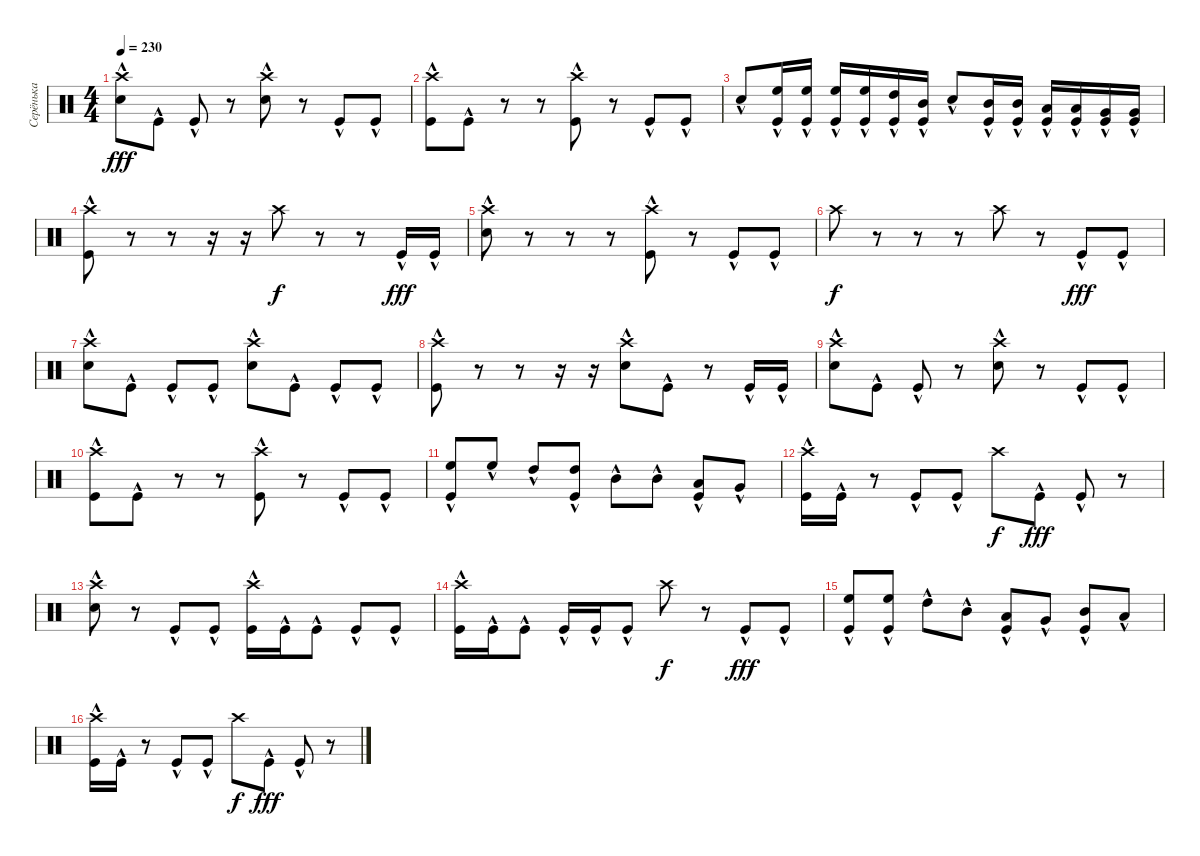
\track ("Серёнька" "Серёнька") {instrument percussion}
\staff {score}
\articulation defaults
\ts (4 4)
\tempo 230
\clef neutral
\ks c
("Crash high (hit)" "Snare (hit) 2"{hac}).8{dy fff} "Kick (hit)"{hac}.8 "Kick (hit)"{hac}.8 r.8 ("Crash high (hit)" "Snare (hit) 2"{hac}).8 r.8 "Kick (hit)"{hac}.8 "Kick (hit)"{hac}.8 |
("Crash high (hit)" "Kick (hit)"{hac}).8 "Kick (hit)"{hac}.8 r.8 r.8 ("Crash high (hit)" "Kick (hit)"{hac}).8 r.8 "Kick (hit)"{hac}.8 "Kick (hit)"{hac}.8 |
"Snare (hit) 2"{hac}.8 ("High Floor Tom (hit)" "Kick (hit)"{hac}).16 ("High Floor Tom (hit)" "Kick (hit)"{hac}).16 ("High Floor Tom (hit)" "Kick (hit)"{hac}).16 ("High Floor Tom (hit)" "Kick (hit)"{hac}).16 ("High Tom (hit)" "Kick (hit)"{hac}).16 ("Mid Tom (hit)" "Kick (hit)"{hac}).16 "Snare (hit) 2"{hac}.8 ("Mid Tom (hit)"{hac} "Kick (hit)"{hac}).16 ("Mid Tom (hit)"{hac} "Kick (hit)"{hac}).16 ("Low Tom (hit)"{hac} "Kick (hit)"{hac}).16 ("Low Tom (hit)"{hac} "Kick (hit)"{hac}).16 ("Very Low Tom (hit)"{hac} "Kick (hit)"{hac}).16 ("Very Low Tom (hit)"{hac} "Kick (hit)"{hac}).16 |
("Crash high (hit)"{hac} "Kick (hit)"{hac}).8 r.8 r.8 r.16 r.16 "Crash high (hit)".8{dy f} r.8 r.8 "Kick (hit)"{hac}.16{dy fff} "Kick (hit)"{hac}.16 |
("Crash high (hit)" "Snare (hit) 2"{hac}).8 r.8 r.8 r.8 ("Crash high (hit)" "Kick (hit)"{hac}).8 r.8 "Kick (hit)"{hac}.8 "Kick (hit)"{hac}.8 |
"Crash high (hit)".8{dy f} r.8 r.8 r.8 "Crash high (hit)".8 r.8 "Kick (hit)"{hac}.8{dy fff} "Kick (hit)"{hac}.8 |
("Crash high (hit)" "Snare (hit) 2"{hac}).8 "Kick (hit)"{hac}.8 "Kick (hit)"{hac}.8 "Kick (hit)"{hac}.8 ("Crash high (hit)" "Snare (hit) 2"{hac}).8 "Kick (hit)"{hac}.8 "Kick (hit)"{hac}.8 "Kick (hit)"{hac}.8 |
("Crash high (hit)"{hac} "Kick (hit)"{hac}).8 r.8 r.8 r.16 r.16 ("Crash high (hit)" "Snare (hit) 2"{hac}).8 "Kick (hit)"{hac}.8 r.8 "Kick (hit)"{hac}.16 "Kick (hit)"{hac}.16 |
("Crash high (hit)" "Snare (hit) 2"{hac}).8 "Kick (hit)"{hac}.8 "Kick (hit)"{hac}.8 r.8 ("Crash high (hit)" "Snare (hit) 2"{hac}).8 r.8 "Kick (hit)"{hac}.8 "Kick (hit)"{hac}.8 |
("Crash high (hit)" "Kick (hit)"{hac}).8 "Kick (hit)"{hac}.8 r.8 r.8 ("Crash high (hit)" "Kick (hit)"{hac}).8 r.8 "Kick (hit)"{hac}.8 "Kick (hit)"{hac}.8 |
("High Floor Tom (hit)"{hac} "Kick (hit)"{hac}).8 "High Floor Tom (hit)"{hac}.8 "High Tom (hit)"{hac}.8 ("High Tom (hit)"{hac} "Kick (hit)"{hac}).8 "Mid Tom (hit)"{hac}.8 "Mid Tom (hit)"{hac}.8 ("Low Tom (hit)"{hac} "Kick (hit)"{hac}).8 "Very Low Tom (hit)"{hac}.8 |
("Crash high (hit)" "Kick (hit)"{hac}).16 "Kick (hit)"{hac}.16 r.8 "Kick (hit)"{hac}.8 "Kick (hit)"{hac}.8 "Crash high (hit)".8{dy f} "Kick (hit)"{hac}.8{dy fff} "Kick (hit)"{hac}.8 r.8 |
("Crash high (hit)" "Snare (hit) 2"{hac}).8 r.8 "Kick (hit)"{hac}.8 "Kick (hit)"{hac}.8 ("Crash high (hit)" "Kick (hit)"{hac}).16 "Kick (hit)"{hac}.16 "Kick (hit)"{hac}.8 "Kick (hit)"{hac}.8 "Kick (hit)"{hac}.8 |
("Crash high (hit)" "Kick (hit)"{hac}).16 "Kick (hit)"{hac}.16 "Kick (hit)"{hac}.8 "Kick (hit)"{hac}.16 "Kick (hit)"{hac}.16 "Kick (hit)"{hac}.8 "Crash high (hit)".8{dy f} r.8 "Kick (hit)"{hac}.8{dy fff} "Kick (hit)"{hac}.8 |
("High Floor Tom (hit)"{hac} "Kick (hit)"{hac}).8 ("High Floor Tom (hit)"{hac} "Kick (hit)"{hac}).8 "High Tom (hit)"{hac}.8 "Mid Tom (hit)"{hac}.8 ("Low Tom (hit)"{hac} "Kick (hit)"{hac}).8 "Very Low Tom (hit)"{hac}.8 ("Mid Tom (hit)"{hac} "Kick (hit)"{hac}).8 "Low Tom (hit)"{hac}.8 |
("Crash high (hit)" "Kick (hit)"{hac}).16 "Kick (hit)"{hac}.16 r.8 "Kick (hit)"{hac}.8 "Kick (hit)"{hac}.8 "Crash high (hit)".8{dy f} "Kick (hit)"{hac}.8{dy fff} "Kick (hit)"{hac}.8 r.8
